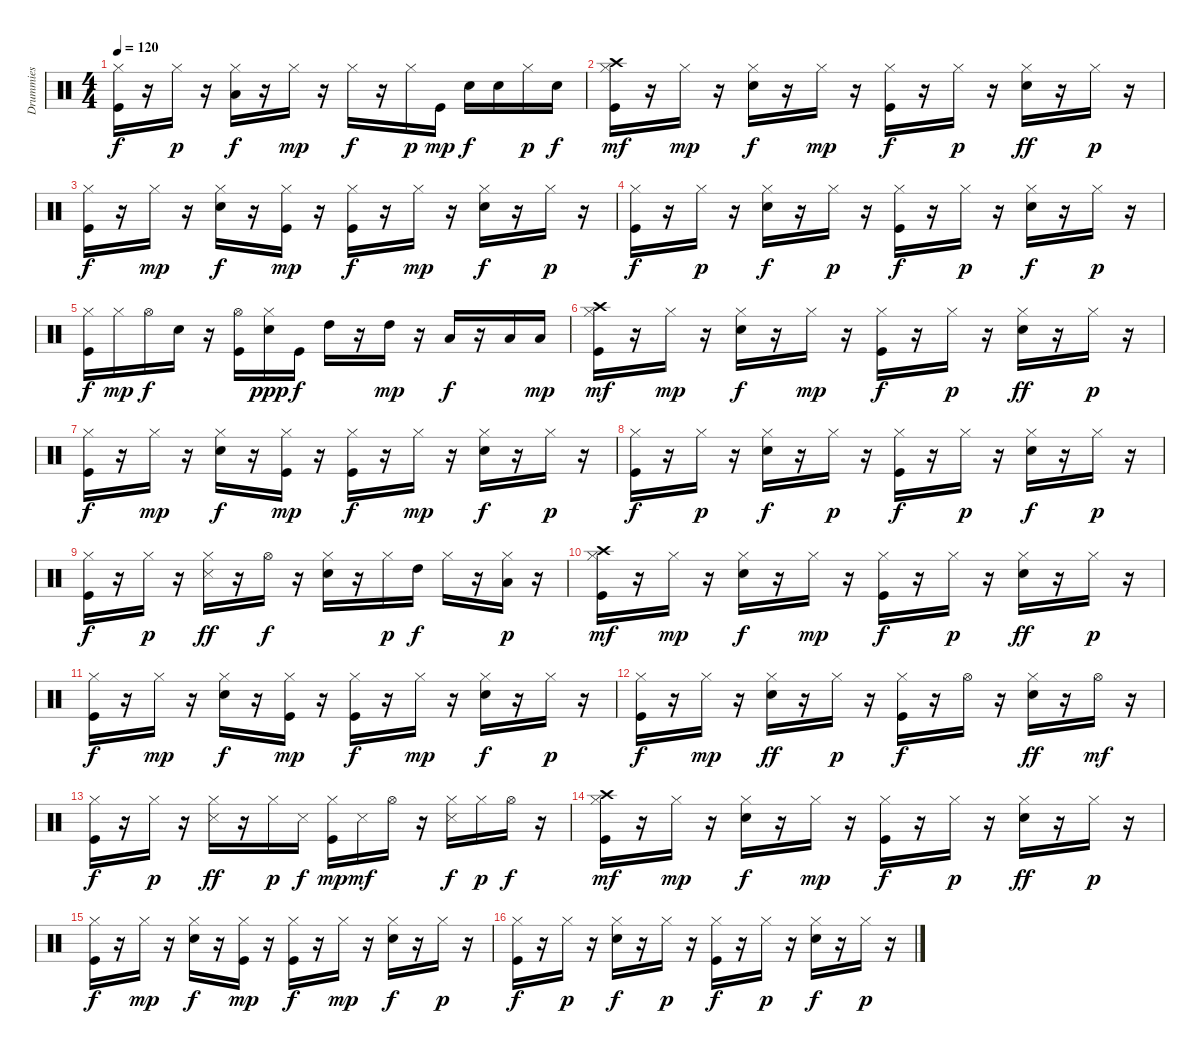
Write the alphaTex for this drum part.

\track ("Drummies" "Drummies") {instrument percussion}
\staff {score}
\articulation defaults
\ts (4 4)
\tempo 120
\clef neutral
\ks c
("Kick (hit)" "Hi-Hat (closed)").16{dy f} r.16 "Hi-Hat (closed)".16{dy p} r.16 ("Hi-Hat (closed)" "Low Tom (hit)").16{dy f} r.16 "Hi-Hat (closed)".16{dy mp} r.16 "Hi-Hat (closed)".16{dy f} r.16 "Hi-Hat (closed)".16{dy p} "Kick (hit)".16{dy mp} "Snare (hit) 2".16{dy f} "Snare (hit) 2".16 "Hi-Hat (closed)".16{dy p} "Snare (hit) 2".16{dy f} |
("Kick (hit)" "Hi-Hat (closed)" "Crash high (hit)").16{dy mf} r.16 "Hi-Hat (closed)".16{dy mp} r.16 ("Snare (hit) 2" "Hi-Hat (closed)").16{dy f} r.16 "Hi-Hat (closed)".16{dy mp} r.16 ("Kick (hit)" "Hi-Hat (closed)").16{dy f} r.16 "Hi-Hat (closed)".16{dy p} r.16 ("Snare (hit) 2" "Hi-Hat (closed)").16{dy ff} r.16 "Hi-Hat (closed)".16{dy p} r.16 |
("Kick (hit)" "Hi-Hat (closed)").16{dy f} r.16 "Hi-Hat (closed)".16{dy mp} r.16 ("Snare (hit) 2" "Hi-Hat (closed)").16{dy f} r.16 ("Kick (hit)" "Hi-Hat (closed)").16{dy mp} r.16 ("Kick (hit)" "Hi-Hat (closed)").16{dy f} r.16 "Hi-Hat (closed)".16{dy mp} r.16 ("Snare (hit) 2" "Hi-Hat (closed)").16{dy f} r.16 "Hi-Hat (closed)".16{dy p} r.16 |
("Kick (hit)" "Hi-Hat (closed)").16{dy f} r.16 "Hi-Hat (closed)".16{dy p} r.16 ("Snare (hit) 2" "Hi-Hat (closed)").16{dy f} r.16 "Hi-Hat (closed)".16{dy p} r.16 ("Kick (hit)" "Hi-Hat (closed)").16{dy f} r.16 "Hi-Hat (closed)".16{dy p} r.16 ("Snare (hit) 2" "Hi-Hat (closed)").16{dy f} r.16 "Hi-Hat (closed)".16{dy p} r.16 |
("Kick (hit)" "Hi-Hat (closed)").16{dy f} "Hi-Hat (closed)".16{dy mp} "Hi-Hat (open)".16{dy f} "Snare (hit) 2".16 r.16 ("Kick (hit)" "Hi-Hat (open)").16 ("Snare (hit) 2" "Hi-Hat (closed)").16{dy ppp} "Kick (hit)".16{dy f} "High Tom (hit)".16 r.16 "High Tom (hit)".16{dy mp} r.16 "Low Tom (hit)".16{dy f} r.16 "Low Floor Tom (hit)".16 "Low Floor Tom (hit)".16{dy mp} |
("Kick (hit)" "Hi-Hat (closed)" "Crash high (hit)").16{dy mf} r.16 "Hi-Hat (closed)".16{dy mp} r.16 ("Snare (hit) 2" "Hi-Hat (closed)").16{dy f} r.16 "Hi-Hat (closed)".16{dy mp} r.16 ("Kick (hit)" "Hi-Hat (closed)").16{dy f} r.16 "Hi-Hat (closed)".16{dy p} r.16 ("Snare (hit) 2" "Hi-Hat (closed)").16{dy ff} r.16 "Hi-Hat (closed)".16{dy p} r.16 |
("Kick (hit)" "Hi-Hat (closed)").16{dy f} r.16 "Hi-Hat (closed)".16{dy mp} r.16 ("Snare (hit) 2" "Hi-Hat (closed)").16{dy f} r.16 ("Kick (hit)" "Hi-Hat (closed)").16{dy mp} r.16 ("Kick (hit)" "Hi-Hat (closed)").16{dy f} r.16 "Hi-Hat (closed)".16{dy mp} r.16 ("Snare (hit) 2" "Hi-Hat (closed)").16{dy f} r.16 "Hi-Hat (closed)".16{dy p} r.16 |
("Kick (hit)" "Hi-Hat (closed)").16{dy f} r.16 "Hi-Hat (closed)".16{dy p} r.16 ("Snare (hit) 2" "Hi-Hat (closed)").16{dy f} r.16 "Hi-Hat (closed)".16{dy p} r.16 ("Kick (hit)" "Hi-Hat (closed)").16{dy f} r.16 "Hi-Hat (closed)".16{dy p} r.16 ("Snare (hit) 2" "Hi-Hat (closed)").16{dy f} r.16 "Hi-Hat (closed)".16{dy p} r.16 |
("Kick (hit)" "Hi-Hat (closed)").16{dy f} r.16 "Hi-Hat (closed)".16{dy p} r.16 ("Hi-Hat (closed)" "Snare (side stick) 3").16{dy ff} r.16 "Hi-Hat (open)".16{dy f} r.16 ("Snare (hit) 2" "Hi-Hat (closed)").16 r.16 "Hi-Hat (closed)".16{dy p} "High Tom (hit)".16{dy f} "Hi-Hat (closed)".16 r.16 ("Hi-Hat (closed)" "Low Tom (hit)").16{dy p} r.16 |
("Kick (hit)" "Hi-Hat (closed)" "Crash high (hit)").16{dy mf} r.16 "Hi-Hat (closed)".16{dy mp} r.16 ("Snare (hit) 2" "Hi-Hat (closed)").16{dy f} r.16 "Hi-Hat (closed)".16{dy mp} r.16 ("Kick (hit)" "Hi-Hat (closed)").16{dy f} r.16 "Hi-Hat (closed)".16{dy p} r.16 ("Snare (hit) 2" "Hi-Hat (closed)").16{dy ff} r.16 "Hi-Hat (closed)".16{dy p} r.16 |
("Kick (hit)" "Hi-Hat (closed)").16{dy f} r.16 "Hi-Hat (closed)".16{dy mp} r.16 ("Snare (hit) 2" "Hi-Hat (closed)").16{dy f} r.16 ("Kick (hit)" "Hi-Hat (closed)").16{dy mp} r.16 ("Kick (hit)" "Hi-Hat (closed)").16{dy f} r.16 "Hi-Hat (closed)".16{dy mp} r.16 ("Snare (hit) 2" "Hi-Hat (closed)").16{dy f} r.16 "Hi-Hat (closed)".16{dy p} r.16 |
("Kick (hit)" "Hi-Hat (closed)").16{dy f} r.16 "Hi-Hat (closed)".16{dy mp} r.16 ("Snare (hit) 2" "Hi-Hat (closed)").16{dy ff} r.16 "Hi-Hat (closed)".16{dy p} r.16 ("Kick (hit)" "Hi-Hat (closed)").16{dy f} r.16 "Hi-Hat (open)".16 r.16 ("Snare (hit) 2" "Hi-Hat (closed)").16{dy ff} r.16 "Hi-Hat (open)".16{dy mf} r.16 |
("Kick (hit)" "Hi-Hat (closed)").16{dy f} r.16 "Hi-Hat (closed)".16{dy p} r.16 ("Hi-Hat (closed)" "Snare (side stick) 3").16{dy ff} r.16 "Hi-Hat (closed)".16{dy p} "Snare (side stick) 3".16{dy f} ("Kick (hit)" "Hi-Hat (closed)").16{dy mp} "Snare (side stick) 3".16{dy mf} "Hi-Hat (open)".16 r.16 ("Hi-Hat (closed)" "Snare (side stick) 3").16{dy f} "Hi-Hat (closed)".16{dy p} "Hi-Hat (open)".16{dy f} r.16 |
("Kick (hit)" "Hi-Hat (closed)" "Crash high (hit)").16{dy mf} r.16 "Hi-Hat (closed)".16{dy mp} r.16 ("Snare (hit) 2" "Hi-Hat (closed)").16{dy f} r.16 "Hi-Hat (closed)".16{dy mp} r.16 ("Kick (hit)" "Hi-Hat (closed)").16{dy f} r.16 "Hi-Hat (closed)".16{dy p} r.16 ("Snare (hit) 2" "Hi-Hat (closed)").16{dy ff} r.16 "Hi-Hat (closed)".16{dy p} r.16 |
("Kick (hit)" "Hi-Hat (closed)").16{dy f} r.16 "Hi-Hat (closed)".16{dy mp} r.16 ("Snare (hit) 2" "Hi-Hat (closed)").16{dy f} r.16 ("Kick (hit)" "Hi-Hat (closed)").16{dy mp} r.16 ("Kick (hit)" "Hi-Hat (closed)").16{dy f} r.16 "Hi-Hat (closed)".16{dy mp} r.16 ("Snare (hit) 2" "Hi-Hat (closed)").16{dy f} r.16 "Hi-Hat (closed)".16{dy p} r.16 |
("Kick (hit)" "Hi-Hat (closed)").16{dy f} r.16 "Hi-Hat (closed)".16{dy p} r.16 ("Snare (hit) 2" "Hi-Hat (closed)").16{dy f} r.16 "Hi-Hat (closed)".16{dy p} r.16 ("Kick (hit)" "Hi-Hat (closed)").16{dy f} r.16 "Hi-Hat (closed)".16{dy p} r.16 ("Snare (hit) 2" "Hi-Hat (closed)").16{dy f} r.16 "Hi-Hat (closed)".16{dy p} r.16
